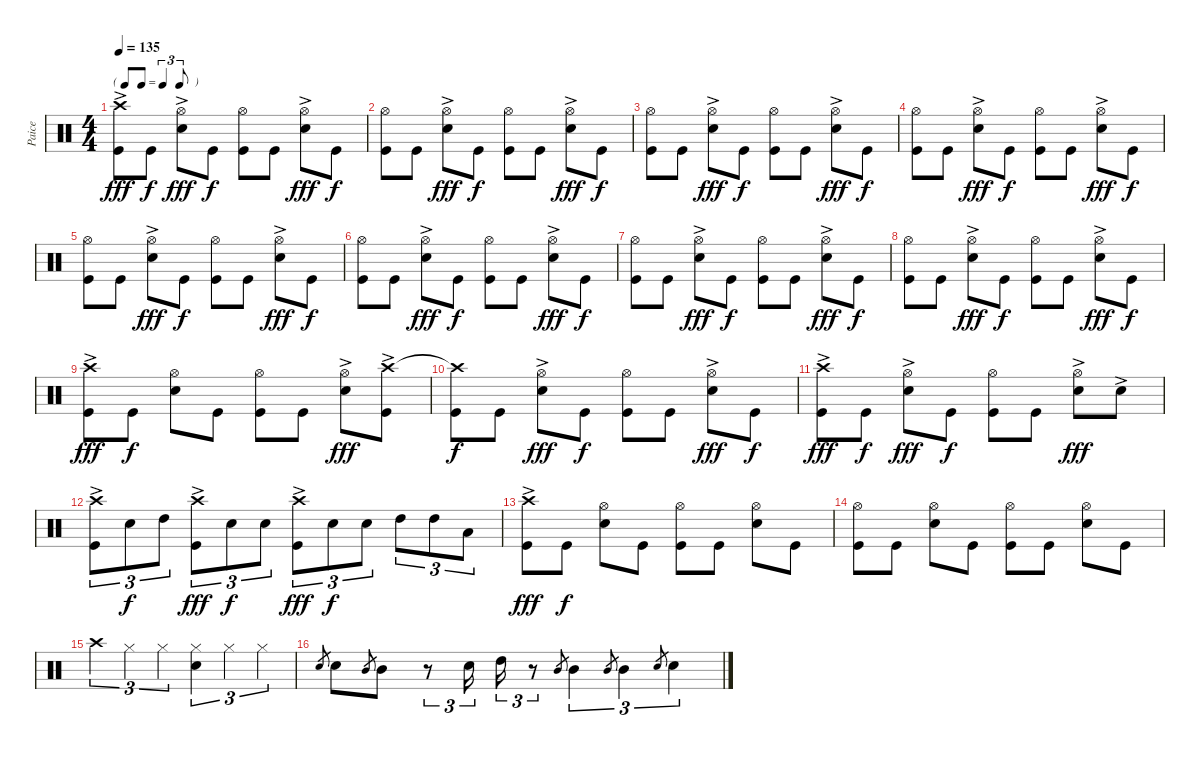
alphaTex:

\track ("Paice" "Paice") {instrument percussion}
\staff {score}
\articulation defaults
\ts (4 4)
\tf triplet8th
\tempo 135
\clef neutral
\ks c
("Crash high (hit)"{ac} "Kick (hit)").8{dy fff volume 10} "Kick (hit)".8{dy f} ("Hi-Hat (open)" "Snare (hit) 2"{ac}).8{dy fff} "Kick (hit)".8{dy f} ("Hi-Hat (open)" "Kick (hit)").8 "Kick (hit)".8 ("Hi-Hat (open)" "Snare (hit) 2"{ac}).8{dy fff} "Kick (hit)".8{dy f} |
("Hi-Hat (open)" "Kick (hit)").8 "Kick (hit)".8 ("Hi-Hat (open)" "Snare (hit) 2"{ac}).8{dy fff} "Kick (hit)".8{dy f} ("Hi-Hat (open)" "Kick (hit)").8 "Kick (hit)".8 ("Hi-Hat (open)" "Snare (hit) 2"{ac}).8{dy fff} "Kick (hit)".8{dy f} |
("Hi-Hat (open)" "Kick (hit)").8 "Kick (hit)".8 ("Hi-Hat (open)" "Snare (hit) 2"{ac}).8{dy fff} "Kick (hit)".8{dy f} ("Hi-Hat (open)" "Kick (hit)").8 "Kick (hit)".8 ("Hi-Hat (open)" "Snare (hit) 2"{ac}).8{dy fff} "Kick (hit)".8{dy f} |
("Hi-Hat (open)" "Kick (hit)").8 "Kick (hit)".8 ("Hi-Hat (open)" "Snare (hit) 2"{ac}).8{dy fff} "Kick (hit)".8{dy f} ("Hi-Hat (open)" "Kick (hit)").8 "Kick (hit)".8 ("Hi-Hat (open)" "Snare (hit) 2"{ac}).8{dy fff} "Kick (hit)".8{dy f} |
("Hi-Hat (open)" "Kick (hit)").8 "Kick (hit)".8 ("Hi-Hat (open)" "Snare (hit) 2"{ac}).8{dy fff} "Kick (hit)".8{dy f} ("Hi-Hat (open)" "Kick (hit)").8 "Kick (hit)".8 ("Hi-Hat (open)" "Snare (hit) 2"{ac}).8{dy fff} "Kick (hit)".8{dy f} |
("Hi-Hat (open)" "Kick (hit)").8 "Kick (hit)".8 ("Hi-Hat (open)" "Snare (hit) 2"{ac}).8{dy fff} "Kick (hit)".8{dy f} ("Hi-Hat (open)" "Kick (hit)").8 "Kick (hit)".8 ("Hi-Hat (open)" "Snare (hit) 2"{ac}).8{dy fff} "Kick (hit)".8{dy f} |
("Hi-Hat (open)" "Kick (hit)").8 "Kick (hit)".8 ("Hi-Hat (open)" "Snare (hit) 2"{ac}).8{dy fff} "Kick (hit)".8{dy f} ("Hi-Hat (open)" "Kick (hit)").8 "Kick (hit)".8 ("Hi-Hat (open)" "Snare (hit) 2"{ac}).8{dy fff} "Kick (hit)".8{dy f} |
("Hi-Hat (open)" "Kick (hit)").8 "Kick (hit)".8 ("Hi-Hat (open)" "Snare (hit) 2"{ac}).8{dy fff} "Kick (hit)".8{dy f} ("Hi-Hat (open)" "Kick (hit)").8 "Kick (hit)".8 ("Hi-Hat (open)" "Snare (hit) 2"{ac}).8{dy fff} "Kick (hit)".8{dy f} |
("Crash high (hit)"{ac} "Kick (hit)").8{dy fff} "Kick (hit)".8{dy f} ("Hi-Hat (open)" "Snare (hit) 2").8 "Kick (hit)".8 ("Hi-Hat (open)" "Kick (hit)").8 "Kick (hit)".8 ("Hi-Hat (open)" "Snare (hit) 2"{ac}).8{dy fff} ("Crash high (hit)"{ac} "Kick (hit)").8 |
("Crash high (hit)"{t} "Kick (hit)").8{dy f} "Kick (hit)".8 ("Hi-Hat (open)" "Snare (hit) 2"{ac}).8{dy fff} "Kick (hit)".8{dy f} ("Hi-Hat (open)" "Kick (hit)").8 "Kick (hit)".8 ("Hi-Hat (open)" "Snare (hit) 2"{ac}).8{dy fff} "Kick (hit)".8{dy f} |
("Crash high (hit)"{ac} "Kick (hit)").8{dy fff} "Kick (hit)".8{dy f} ("Hi-Hat (open)" "Snare (hit) 2"{ac}).8{dy fff} "Kick (hit)".8{dy f} ("Hi-Hat (open)" "Kick (hit)").8 "Kick (hit)".8 ("Hi-Hat (open)" "Snare (hit) 2"{ac}).8{dy fff} "Snare (hit) 2"{ac}.8 |
("Crash high (hit)"{ac} "Kick (hit)").8{tu (3 2)} "Snare (hit) 2".8{tu (3 2) dy f} "High Tom (hit)".8{tu (3 2)} ("Crash high (hit)"{ac} "Kick (hit)").8{tu (3 2) dy fff} "Snare (hit) 2".8{tu (3 2) dy f} "Snare (hit) 2".8{tu (3 2)} ("Crash high (hit)"{ac} "Kick (hit)").8{tu (3 2) dy fff} "Snare (hit) 2".8{tu (3 2) dy f} "Snare (hit) 2".8{tu (3 2)} "High Tom (hit)".8{tu (3 2)} "High Tom (hit)".8{tu (3 2)} "Low Tom (hit)".8{tu (3 2)} |
("Crash high (hit)"{ac} "Kick (hit)").8{dy fff} "Kick (hit)".8{dy f} ("Hi-Hat (open)" "Snare (hit) 2").8 "Kick (hit)".8 ("Hi-Hat (open)" "Kick (hit)").8 "Kick (hit)".8 ("Hi-Hat (open)" "Snare (hit) 2").8 "Kick (hit)".8 |
("Hi-Hat (open)" "Kick (hit)").8 "Kick (hit)".8 ("Hi-Hat (open)" "Snare (hit) 2").8 "Kick (hit)".8 ("Hi-Hat (open)" "Kick (hit)").8 "Kick (hit)".8 ("Hi-Hat (open)" "Snare (hit) 2").8 "Kick (hit)".8 |
"Crash high (hit)".4{tu (3 2)} "Hi-Hat (closed)".4{tu (3 2)} "Hi-Hat (closed)".4{tu (3 2)} ("Hi-Hat (closed)" "Snare (hit) 2").4{tu (3 2)} "Hi-Hat (closed)".4{tu (3 2)} "Hi-Hat (closed)".4{tu (3 2)} |
"Snare (hit) 2".8{gr} "Snare (hit) 2".8 "Mid Tom (hit)".8{gr} "Mid Tom (hit)".8 r.8{tu (3 2)} "Snare (hit) 2".16{tu (3 2)} "High Tom (hit)".16{tu (3 2)} r.8{tu (3 2)} "Mid Tom (hit)".8{gr} "Mid Tom (hit)".4{tu (3 2)} "Mid Tom (hit)".8{gr} "Mid Tom (hit)".4{tu (3 2)} "Snare (hit) 2".8{gr} "Snare (hit) 2".4{tu (3 2)}
